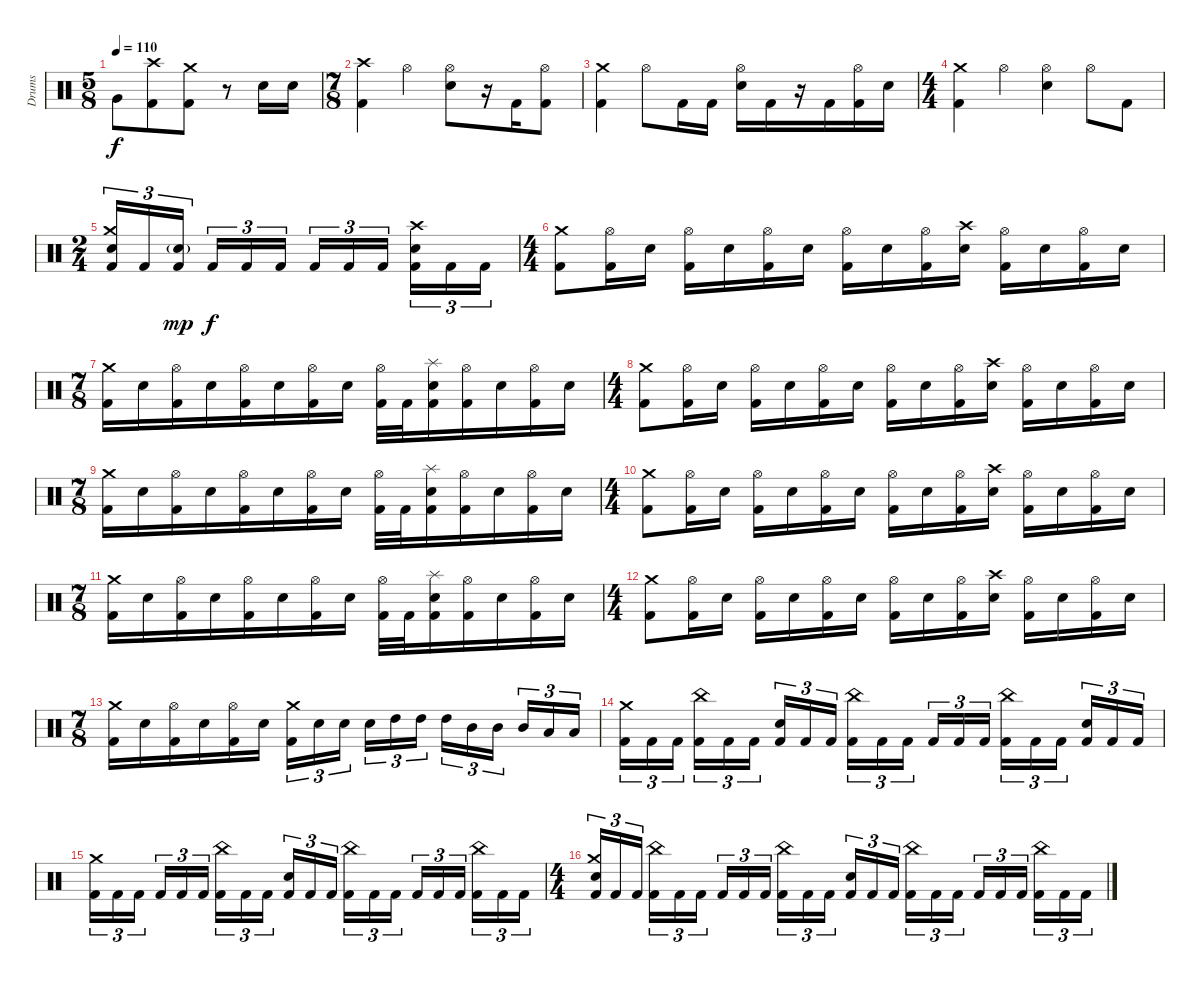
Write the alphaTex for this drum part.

\track ("Drums" "Drums") {instrument percussion}
\staff {score}
\articulation defaults
\ts (5 8)
\tempo 110
\clef neutral
\ks c "Very Low Tom (hit)".8{dy f}
("Crash high (hit)" "Kick (hit) 2").8 ("Crash medium (hit)" "Kick (hit) 2").8 r.8 "Electric Snare (hit)".16 "Electric Snare (hit)".16 |
\ts (7 8)
("Crash high (hit)" "Kick (hit) 2").4 "Hi-Hat (open)".4 ("Hi-Hat (open)" "Electric Snare (hit)").8 r.16 "Kick (hit) 2".16 ("Hi-Hat (open)" "Kick (hit) 2").8 |
("Crash medium (hit)" "Kick (hit) 2").4 "Hi-Hat (open)".8 "Kick (hit) 2".16 "Kick (hit) 2".16 ("Hi-Hat (open)" "Electric Snare (hit)").16 "Kick (hit) 2".16 r.16 "Kick (hit) 2".16 ("Hi-Hat (open)" "Kick (hit) 2").16 "Electric Snare (hit)".16 |
\ts (4 4)
("Crash medium (hit)" "Kick (hit) 2").4 "Hi-Hat (open)".4 ("Hi-Hat (open)" "Electric Snare (hit)").4 "Hi-Hat (open)".8 "Kick (hit) 2".8 |
\ts (2 4)
("Crash medium (hit)" "Electric Snare (hit)" "Kick (hit) 2").16{tu (3 2)} "Kick (hit) 2".16{tu (3 2)} ("Electric Snare (hit)"{g} "Kick (hit) 2").16{tu (3 2) dy mp beam splitsecondary} "Kick (hit) 2".16{tu (3 2) dy f} "Kick (hit) 2".16{tu (3 2)} "Kick (hit) 2".16{tu (3 2)} "Kick (hit) 2".16{tu (3 2)} "Kick (hit) 2".16{tu (3 2)} "Kick (hit) 2".16{tu (3 2) beam splitsecondary} ("Crash high (hit)" "Electric Snare (hit)" "Kick (hit) 2").16{tu (3 2)} "Kick (hit) 2".16{tu (3 2)} "Kick (hit) 2".16{tu (3 2)} |
\ts (4 4)
("Crash medium (hit)" "Kick (hit) 2").8 ("Hi-Hat (open)" "Kick (hit) 2").16 "Electric Snare (hit)".16 ("Hi-Hat (open)" "Kick (hit) 2").16 "Electric Snare (hit)".16 ("Hi-Hat (open)" "Kick (hit) 2").16 "Electric Snare (hit)".16 ("Hi-Hat (open)" "Kick (hit) 2").16 "Electric Snare (hit)".16 ("Hi-Hat (open)" "Kick (hit) 2").16 ("Crash high (hit)" "Electric Snare (hit)").16 ("Hi-Hat (open)" "Kick (hit) 2").16 "Electric Snare (hit)".16 ("Hi-Hat (open)" "Kick (hit) 2").16 "Electric Snare (hit)".16 |
\ts (7 8)
("Crash medium (hit)" "Kick (hit) 2").16 "Electric Snare (hit)".16 ("Hi-Hat (open)" "Kick (hit) 2").16 "Electric Snare (hit)".16 ("Hi-Hat (open)" "Kick (hit) 2").16 "Electric Snare (hit)".16 ("Hi-Hat (open)" "Kick (hit) 2").16 "Electric Snare (hit)".16 ("Hi-Hat (open)" "Kick (hit) 2").32 "Kick (hit) 2".32 ("Splash (hit)" "Electric Snare (hit)" "Kick (hit) 2").16 ("Hi-Hat (open)" "Kick (hit) 2").16 "Electric Snare (hit)".16 ("Hi-Hat (open)" "Kick (hit) 2").16 "Electric Snare (hit)".16 |
\ts (4 4)
("Crash medium (hit)" "Kick (hit) 2").8 ("Hi-Hat (open)" "Kick (hit) 2").16 "Electric Snare (hit)".16 ("Hi-Hat (open)" "Kick (hit) 2").16 "Electric Snare (hit)".16 ("Hi-Hat (open)" "Kick (hit) 2").16 "Electric Snare (hit)".16 ("Hi-Hat (open)" "Kick (hit) 2").16 "Electric Snare (hit)".16 ("Hi-Hat (open)" "Kick (hit) 2").16 ("Crash high (hit)" "Electric Snare (hit)").16 ("Hi-Hat (open)" "Kick (hit) 2").16 "Electric Snare (hit)".16 ("Hi-Hat (open)" "Kick (hit) 2").16 "Electric Snare (hit)".16 |
\ts (7 8)
("Crash medium (hit)" "Kick (hit) 2").16 "Electric Snare (hit)".16 ("Hi-Hat (open)" "Kick (hit) 2").16 "Electric Snare (hit)".16 ("Hi-Hat (open)" "Kick (hit) 2").16 "Electric Snare (hit)".16 ("Hi-Hat (open)" "Kick (hit) 2").16 "Electric Snare (hit)".16 ("Hi-Hat (open)" "Kick (hit) 2").32 "Kick (hit) 2".32 ("Splash (hit)" "Electric Snare (hit)" "Kick (hit) 2").16 ("Hi-Hat (open)" "Kick (hit) 2").16 "Electric Snare (hit)".16 ("Hi-Hat (open)" "Kick (hit) 2").16 "Electric Snare (hit)".16 |
\ts (4 4)
("Crash medium (hit)" "Kick (hit) 2").8 ("Hi-Hat (open)" "Kick (hit) 2").16 "Electric Snare (hit)".16 ("Hi-Hat (open)" "Kick (hit) 2").16 "Electric Snare (hit)".16 ("Hi-Hat (open)" "Kick (hit) 2").16 "Electric Snare (hit)".16 ("Hi-Hat (open)" "Kick (hit) 2").16 "Electric Snare (hit)".16 ("Hi-Hat (open)" "Kick (hit) 2").16 ("Crash high (hit)" "Electric Snare (hit)").16 ("Hi-Hat (open)" "Kick (hit) 2").16 "Electric Snare (hit)".16 ("Hi-Hat (open)" "Kick (hit) 2").16 "Electric Snare (hit)".16 |
\ts (7 8)
("Crash medium (hit)" "Kick (hit) 2").16 "Electric Snare (hit)".16 ("Hi-Hat (open)" "Kick (hit) 2").16 "Electric Snare (hit)".16 ("Hi-Hat (open)" "Kick (hit) 2").16 "Electric Snare (hit)".16 ("Hi-Hat (open)" "Kick (hit) 2").16 "Electric Snare (hit)".16 ("Hi-Hat (open)" "Kick (hit) 2").32 "Kick (hit) 2".32 ("Splash (hit)" "Electric Snare (hit)" "Kick (hit) 2").16 ("Hi-Hat (open)" "Kick (hit) 2").16 "Electric Snare (hit)".16 ("Hi-Hat (open)" "Kick (hit) 2").16 "Electric Snare (hit)".16 |
\ts (4 4)
("Crash medium (hit)" "Kick (hit) 2").8 ("Hi-Hat (open)" "Kick (hit) 2").16 "Electric Snare (hit)".16 ("Hi-Hat (open)" "Kick (hit) 2").16 "Electric Snare (hit)".16 ("Hi-Hat (open)" "Kick (hit) 2").16 "Electric Snare (hit)".16 ("Hi-Hat (open)" "Kick (hit) 2").16 "Electric Snare (hit)".16 ("Hi-Hat (open)" "Kick (hit) 2").16 ("Crash high (hit)" "Electric Snare (hit)").16 ("Hi-Hat (open)" "Kick (hit) 2").16 "Electric Snare (hit)".16 ("Hi-Hat (open)" "Kick (hit) 2").16 "Electric Snare (hit)".16 |
\ts (7 8)
("Crash medium (hit)" "Kick (hit) 2").16 "Electric Snare (hit)".16 ("Hi-Hat (open)" "Kick (hit) 2").16 "Electric Snare (hit)".16 ("Hi-Hat (open)" "Kick (hit) 2").16 "Electric Snare (hit)".16 ("Crash medium (hit)" "Kick (hit) 2").16{tu (3 2)} "Electric Snare (hit)".16{tu (3 2)} "Electric Snare (hit)".16{tu (3 2)} "Electric Snare (hit)".16{tu (3 2)} "High Tom (hit)".16{tu (3 2)} "High Tom (hit)".16{tu (3 2)} "High Tom (hit)".16{tu (3 2)} "Mid Tom (hit)".16{tu (3 2)} "Mid Tom (hit)".16{tu (3 2)} "Mid Tom (hit)".16{tu (3 2)} "Low Tom (hit)".16{tu (3 2)} "Low Tom (hit)".16{tu (3 2)} |
("Crash medium (hit)" "Kick (hit) 2").16{tu (3 2)} "Kick (hit) 2".16{tu (3 2)} "Kick (hit) 2".16{tu (3 2)} ("China (hit)" "Kick (hit) 2").16{tu (3 2)} "Kick (hit) 2".16{tu (3 2)} "Kick (hit) 2".16{tu (3 2)} ("Electric Snare (hit)" "Kick (hit) 2").16{tu (3 2)} "Kick (hit) 2".16{tu (3 2)} "Kick (hit) 2".16{tu (3 2)} ("China (hit)" "Kick (hit) 2").16{tu (3 2)} "Kick (hit) 2".16{tu (3 2)} "Kick (hit) 2".16{tu (3 2)} "Kick (hit) 2".16{tu (3 2)} "Kick (hit) 2".16{tu (3 2)} "Kick (hit) 2".16{tu (3 2)} ("China (hit)" "Kick (hit) 2").16{tu (3 2)} "Kick (hit) 2".16{tu (3 2)} "Kick (hit) 2".16{tu (3 2)} ("Electric Snare (hit)" "Kick (hit) 2").16{tu (3 2)} "Kick (hit) 2".16{tu (3 2)} "Kick (hit) 2".16{tu (3 2)} |
("Crash medium (hit)" "Kick (hit) 2").16{tu (3 2)} "Kick (hit) 2".16{tu (3 2)} "Kick (hit) 2".16{tu (3 2)} "Kick (hit) 2".16{tu (3 2)} "Kick (hit) 2".16{tu (3 2)} "Kick (hit) 2".16{tu (3 2)} ("China (hit)" "Kick (hit) 2").16{tu (3 2)} "Kick (hit) 2".16{tu (3 2)} "Kick (hit) 2".16{tu (3 2)} ("Electric Snare (hit)" "Kick (hit) 2").16{tu (3 2)} "Kick (hit) 2".16{tu (3 2)} "Kick (hit) 2".16{tu (3 2)} ("China (hit)" "Kick (hit) 2").16{tu (3 2)} "Kick (hit) 2".16{tu (3 2)} "Kick (hit) 2".16{tu (3 2)} "Kick (hit) 2".16{tu (3 2)} "Kick (hit) 2".16{tu (3 2)} "Kick (hit) 2".16{tu (3 2)} ("China (hit)" "Kick (hit) 2").16{tu (3 2)} "Kick (hit) 2".16{tu (3 2)} "Kick (hit) 2".16{tu (3 2)} |
\ts (4 4)
("Crash medium (hit)" "Electric Snare (hit)" "Kick (hit) 2").16{tu (3 2)} "Kick (hit) 2".16{tu (3 2)} "Kick (hit) 2".16{tu (3 2) beam splitsecondary} ("China (hit)" "Kick (hit) 2").16{tu (3 2)} "Kick (hit) 2".16{tu (3 2)} "Kick (hit) 2".16{tu (3 2)} "Kick (hit) 2".16{tu (3 2)} "Kick (hit) 2".16{tu (3 2)} "Kick (hit) 2".16{tu (3 2) beam splitsecondary} ("China (hit)" "Kick (hit) 2").16{tu (3 2)} "Kick (hit) 2".16{tu (3 2)} "Kick (hit) 2".16{tu (3 2)} ("Electric Snare (hit)" "Kick (hit) 2").16{tu (3 2)} "Kick (hit) 2".16{tu (3 2)} "Kick (hit) 2".16{tu (3 2) beam splitsecondary} ("China (hit)" "Kick (hit) 2").16{tu (3 2)} "Kick (hit) 2".16{tu (3 2)} "Kick (hit) 2".16{tu (3 2)} "Kick (hit) 2".16{tu (3 2)} "Kick (hit) 2".16{tu (3 2)} "Kick (hit) 2".16{tu (3 2) beam splitsecondary} ("China (hit)" "Kick (hit) 2").16{tu (3 2)} "Kick (hit) 2".16{tu (3 2)} "Kick (hit) 2".16{tu (3 2)}
